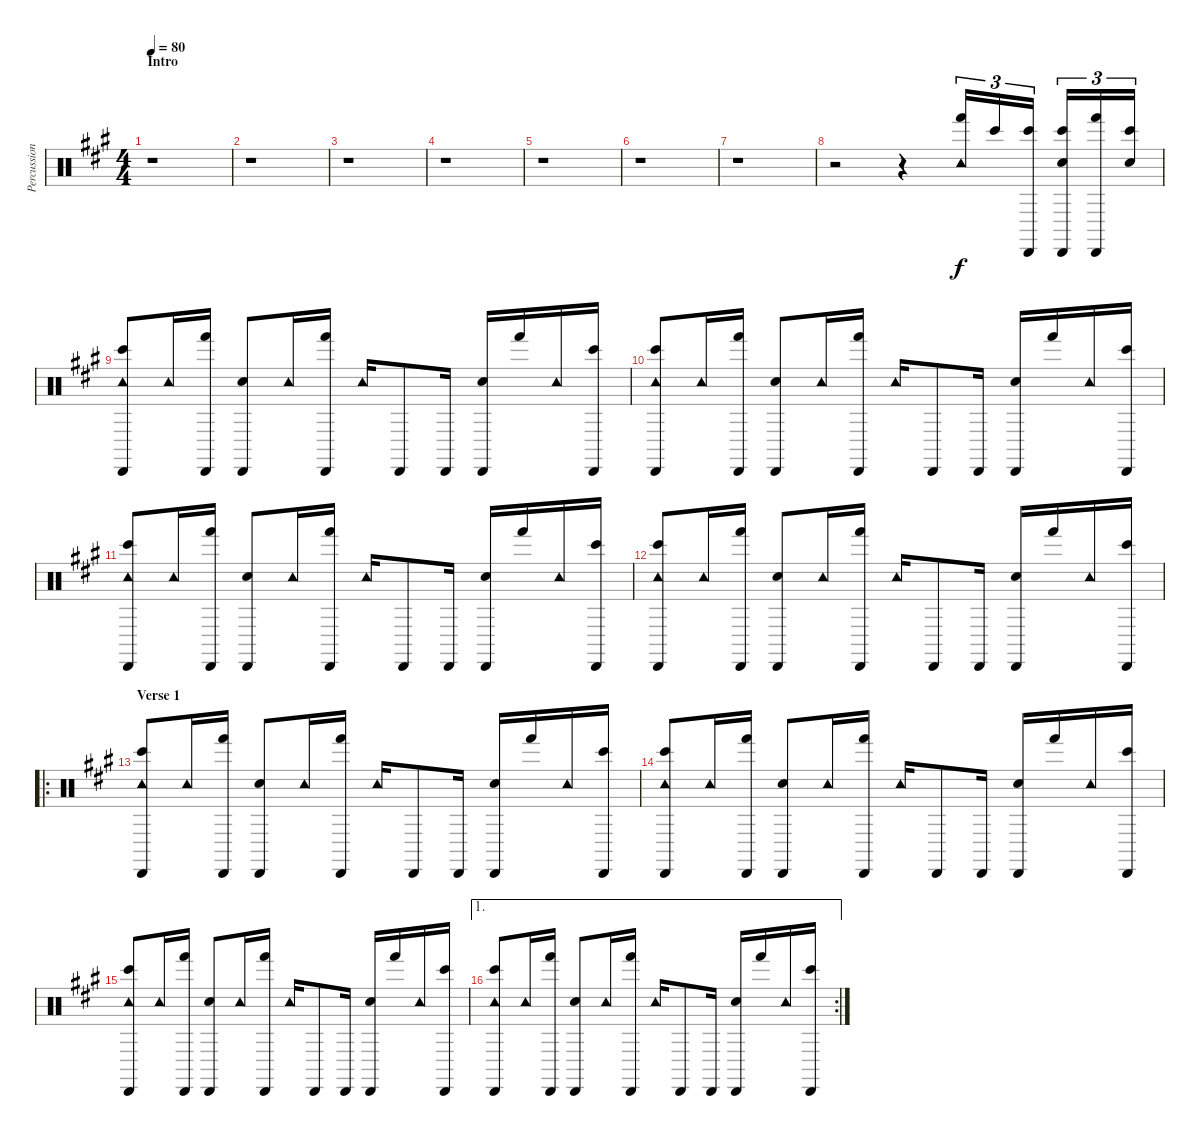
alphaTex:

\track ("Percussion" "Percussion") {instrument percussion}
\staff {score}
\articulation defaults
\ts (4 4)
\section ("" "Intro")
\tempo 80
\clef neutral
\ks a
r.1{dy f} |
r.1 |
r.1 |
r.1 |
r.1 |
r.1 |
r.1 |
r.2 r.4 ("Tambourine (hit)" "Hand (hit)").16{tu (3 2)} "Bongo High (hit)".16{tu (3 2)} ("Cabasa (hit)" "Bongo High (hit)").16{tu (3 2)} ("Cabasa (hit)" "Hand Clap (hit)" "Bongo High (hit)").16{tu (3 2)} ("Cabasa (hit)" "Hand (hit)").16{tu (3 2)} ("Hand Clap (hit)" "Bongo High (hit)").16{tu (3 2)} |
("Cabasa (hit)" "Tambourine (hit)" "Bongo High (hit)").8 "Tambourine (hit)".16 ("Cabasa (hit)" "Hand (hit)").16 ("Cabasa (hit)" "Hand Clap (hit)").8 "Tambourine (hit)".16 ("Cabasa (hit)" "Hand (hit)").16 "Tambourine (hit)".16 "Cabasa (hit)".8 "Cabasa (hit)".16 ("Cabasa (hit)" "Hand Clap (hit)").16 "Hand (hit)".16 "Tambourine (hit)".16 ("Cabasa (hit)" "Bongo High (hit)").16 |
("Cabasa (hit)" "Tambourine (hit)" "Bongo High (hit)").8 "Tambourine (hit)".16 ("Cabasa (hit)" "Hand (hit)").16 ("Cabasa (hit)" "Hand Clap (hit)").8 "Tambourine (hit)".16 ("Cabasa (hit)" "Hand (hit)").16 "Tambourine (hit)".16 "Cabasa (hit)".8 "Cabasa (hit)".16 ("Cabasa (hit)" "Hand Clap (hit)").16 "Hand (hit)".16 "Tambourine (hit)".16 ("Cabasa (hit)" "Bongo High (hit)").16 |
("Cabasa (hit)" "Tambourine (hit)" "Bongo High (hit)").8 "Tambourine (hit)".16 ("Cabasa (hit)" "Hand (hit)").16 ("Cabasa (hit)" "Hand Clap (hit)").8 "Tambourine (hit)".16 ("Cabasa (hit)" "Hand (hit)").16 "Tambourine (hit)".16 "Cabasa (hit)".8 "Cabasa (hit)".16 ("Cabasa (hit)" "Hand Clap (hit)").16 "Hand (hit)".16 "Tambourine (hit)".16 ("Cabasa (hit)" "Bongo High (hit)").16 |
("Cabasa (hit)" "Tambourine (hit)" "Bongo High (hit)").8 "Tambourine (hit)".16 ("Cabasa (hit)" "Hand (hit)").16 ("Cabasa (hit)" "Hand Clap (hit)").8 "Tambourine (hit)".16 ("Cabasa (hit)" "Hand (hit)").16 "Tambourine (hit)".16 "Cabasa (hit)".8 "Cabasa (hit)".16 ("Cabasa (hit)" "Hand Clap (hit)").16 "Hand (hit)".16 "Tambourine (hit)".16 ("Cabasa (hit)" "Bongo High (hit)").16 |
\ro
\section ("" "Verse 1")
("Cabasa (hit)" "Tambourine (hit)" "Bongo High (hit)").8 "Tambourine (hit)".16 ("Cabasa (hit)" "Hand (hit)").16 ("Cabasa (hit)" "Hand Clap (hit)").8 "Tambourine (hit)".16 ("Cabasa (hit)" "Hand (hit)").16 "Tambourine (hit)".16 "Cabasa (hit)".8 "Cabasa (hit)".16 ("Cabasa (hit)" "Hand Clap (hit)").16 "Hand (hit)".16 "Tambourine (hit)".16 ("Cabasa (hit)" "Bongo High (hit)").16 |
("Cabasa (hit)" "Tambourine (hit)" "Bongo High (hit)").8 "Tambourine (hit)".16 ("Cabasa (hit)" "Hand (hit)").16 ("Cabasa (hit)" "Hand Clap (hit)").8 "Tambourine (hit)".16 ("Cabasa (hit)" "Hand (hit)").16 "Tambourine (hit)".16 "Cabasa (hit)".8 "Cabasa (hit)".16 ("Cabasa (hit)" "Hand Clap (hit)").16 "Hand (hit)".16 "Tambourine (hit)".16 ("Cabasa (hit)" "Bongo High (hit)").16 |
("Cabasa (hit)" "Tambourine (hit)" "Bongo High (hit)").8 "Tambourine (hit)".16 ("Cabasa (hit)" "Hand (hit)").16 ("Cabasa (hit)" "Hand Clap (hit)").8 "Tambourine (hit)".16 ("Cabasa (hit)" "Hand (hit)").16 "Tambourine (hit)".16 "Cabasa (hit)".8 "Cabasa (hit)".16 ("Cabasa (hit)" "Hand Clap (hit)").16 "Hand (hit)".16 "Tambourine (hit)".16 ("Cabasa (hit)" "Bongo High (hit)").16 |
\ae 1
\rc 2
("Cabasa (hit)" "Tambourine (hit)" "Bongo High (hit)").8 "Tambourine (hit)".16 ("Cabasa (hit)" "Hand (hit)").16 ("Cabasa (hit)" "Hand Clap (hit)").8 "Tambourine (hit)".16 ("Cabasa (hit)" "Hand (hit)").16 "Tambourine (hit)".16 "Cabasa (hit)".8 "Cabasa (hit)".16 ("Cabasa (hit)" "Hand Clap (hit)").16 "Hand (hit)".16 "Tambourine (hit)".16 ("Cabasa (hit)" "Bongo High (hit)").16
